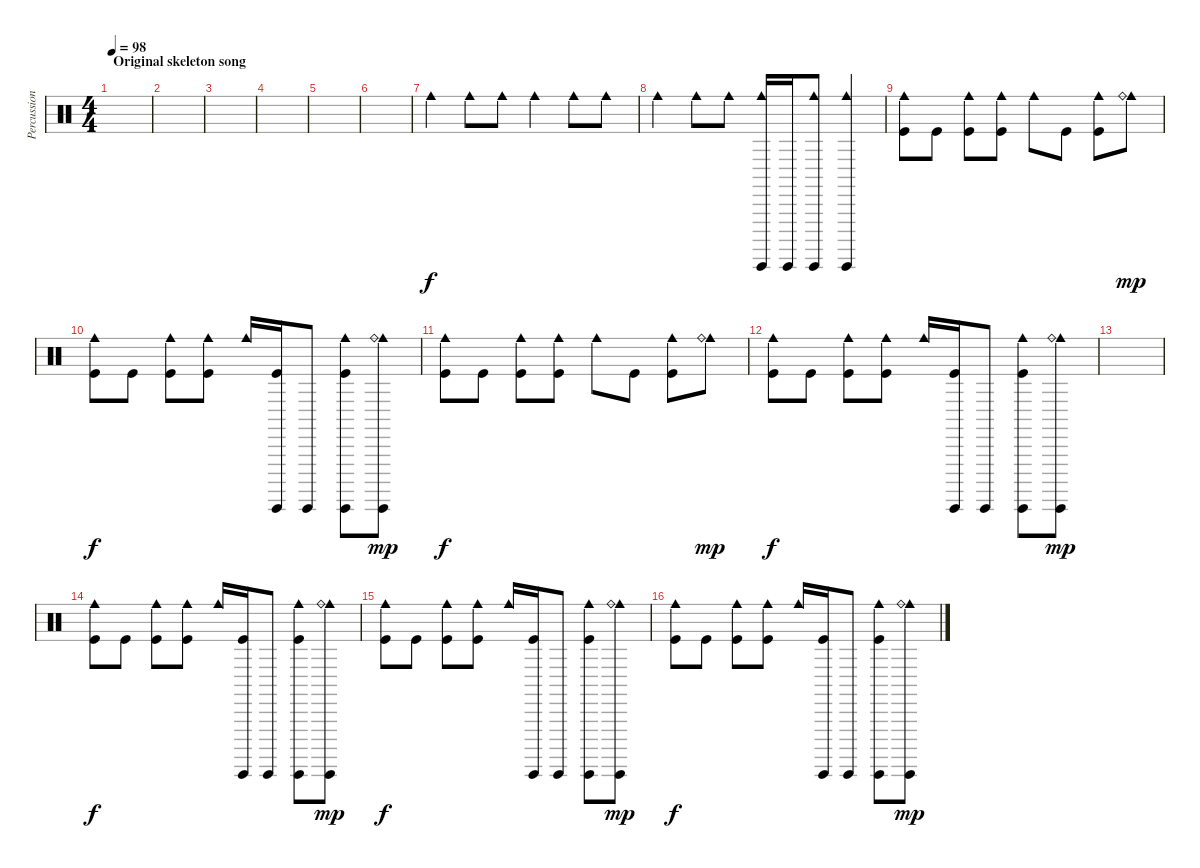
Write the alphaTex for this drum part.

\track ("Percussion" "Percussion") {instrument percussion}
\staff {score}
\articulation defaults
\ts (4 4)
\section ("" "Original skeleton song")
\tempo 98
\clef neutral
\ks c
|
|
|
|
|
|
"Cowbell medium (hit)".4 "Cowbell medium (hit)".8 "Cowbell medium (hit)".8 "Cowbell medium (hit)".4 "Cowbell medium (hit)".8 "Cowbell medium (hit)".8 |
"Cowbell medium (hit)".4 "Cowbell medium (hit)".8 "Cowbell medium (hit)".8 ("Cowbell medium (hit)" "Guiro (hit)").16 "Guiro (hit)".16 ("Cowbell medium (hit)" "Guiro (hit)").8 ("Cowbell medium (hit)" "Guiro (hit)").4 |
("Cowbell medium (hit)" "Kick (hit)").8 "Kick (hit)".8 ("Cowbell medium (hit)" "Kick (hit)").8 ("Cowbell medium (hit)" "Kick (hit)").8 "Cowbell medium (hit)".8 "Kick (hit)".8 ("Cowbell medium (hit)" "Kick (hit)").8 ("Cowbell medium (hit)" "Ride (bell)").8{dy mp} |
("Cowbell medium (hit)" "Kick (hit)").8{dy f} "Kick (hit)".8 ("Cowbell medium (hit)" "Kick (hit)").8 ("Cowbell medium (hit)" "Kick (hit)").8 "Cowbell medium (hit)".16 ("Guiro (hit)" "Kick (hit)").16 "Guiro (hit)".8 ("Cowbell medium (hit)" "Guiro (hit)" "Kick (hit)").8 ("Cowbell medium (hit)" "Guiro (hit)" "Ride (bell)").8{dy mp} |
("Cowbell medium (hit)" "Kick (hit)").8{dy f} "Kick (hit)".8 ("Cowbell medium (hit)" "Kick (hit)").8 ("Cowbell medium (hit)" "Kick (hit)").8 "Cowbell medium (hit)".8 "Kick (hit)".8 ("Cowbell medium (hit)" "Kick (hit)").8 ("Cowbell medium (hit)" "Ride (bell)").8{dy mp} |
("Cowbell medium (hit)" "Kick (hit)").8{dy f} "Kick (hit)".8 ("Cowbell medium (hit)" "Kick (hit)").8 ("Cowbell medium (hit)" "Kick (hit)").8 "Cowbell medium (hit)".16 ("Guiro (hit)" "Kick (hit)").16 "Guiro (hit)".8 ("Cowbell medium (hit)" "Guiro (hit)" "Kick (hit)").8 ("Cowbell medium (hit)" "Guiro (hit)" "Ride (bell)").8{dy mp} |
|
("Cowbell medium (hit)" "Kick (hit)").8{dy f} "Kick (hit)".8 ("Cowbell medium (hit)" "Kick (hit)").8 ("Cowbell medium (hit)" "Kick (hit)").8 "Cowbell medium (hit)".16 ("Guiro (hit)" "Kick (hit)").16 "Guiro (hit)".8 ("Cowbell medium (hit)" "Guiro (hit)" "Kick (hit)").8 ("Cowbell medium (hit)" "Guiro (hit)" "Ride (bell)").8{dy mp} |
("Cowbell medium (hit)" "Kick (hit)").8{dy f} "Kick (hit)".8 ("Cowbell medium (hit)" "Kick (hit)").8 ("Cowbell medium (hit)" "Kick (hit)").8 "Cowbell medium (hit)".16 ("Guiro (hit)" "Kick (hit)").16 "Guiro (hit)".8 ("Cowbell medium (hit)" "Guiro (hit)" "Kick (hit)").8 ("Cowbell medium (hit)" "Guiro (hit)" "Ride (bell)").8{dy mp} |
("Cowbell medium (hit)" "Kick (hit)").8{dy f} "Kick (hit)".8 ("Cowbell medium (hit)" "Kick (hit)").8 ("Cowbell medium (hit)" "Kick (hit)").8 "Cowbell medium (hit)".16 ("Guiro (hit)" "Kick (hit)").16 "Guiro (hit)".8 ("Cowbell medium (hit)" "Guiro (hit)" "Kick (hit)").8 ("Cowbell medium (hit)" "Guiro (hit)" "Ride (bell)").8{dy mp}
